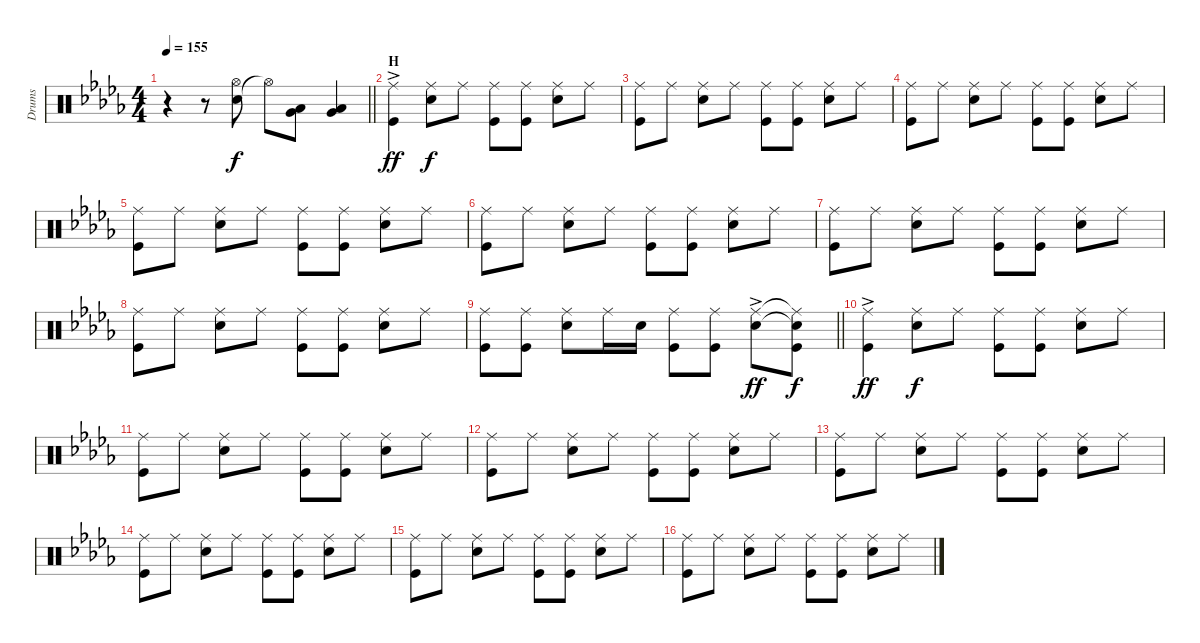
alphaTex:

\track ("Drums" "Drums") {instrument percussion}
\staff {score}
\articulation defaults
\ts (4 4)
\tempo 155
\clef neutral
\barLineRight lightlight
\ks db
r.4{dy f} r.8 ("Snare (hit) 2" "Hi-Hat (open)").8 "Hi-Hat (open)"{t}.8 ("Low Tom (hit)" "Very Low Tom (hit)").8 ("Low Tom (hit)" "Very Low Tom (hit)").4 |
\section ("" "H")
("Ride (middle)"{ac} "Kick (hit)"{ac}).4{dy ff} ("Ride (middle)" "Snare (hit) 2").8{dy f} "Ride (middle)".8 ("Ride (middle)" "Kick (hit)").8 ("Ride (middle)" "Kick (hit)").8 ("Ride (middle)" "Snare (hit) 2").8 "Ride (middle)".8 |
("Ride (middle)" "Kick (hit)").8 "Ride (middle)".8 ("Ride (middle)" "Snare (hit) 2").8 "Ride (middle)".8 ("Ride (middle)" "Kick (hit)").8 ("Ride (middle)" "Kick (hit)").8 ("Ride (middle)" "Snare (hit) 2").8 "Ride (middle)".8 |
("Ride (middle)" "Kick (hit)").8 "Ride (middle)".8 ("Ride (middle)" "Snare (hit) 2").8 "Ride (middle)".8 ("Ride (middle)" "Kick (hit)").8 ("Ride (middle)" "Kick (hit)").8 ("Ride (middle)" "Snare (hit) 2").8 "Ride (middle)".8 |
("Ride (middle)" "Kick (hit)").8 "Ride (middle)".8 ("Ride (middle)" "Snare (hit) 2").8 "Ride (middle)".8 ("Ride (middle)" "Kick (hit)").8 ("Ride (middle)" "Kick (hit)").8 ("Ride (middle)" "Snare (hit) 2").8 "Ride (middle)".8 |
("Ride (middle)" "Kick (hit)").8 "Ride (middle)".8 ("Ride (middle)" "Snare (hit) 2").8 "Ride (middle)".8 ("Ride (middle)" "Kick (hit)").8 ("Ride (middle)" "Kick (hit)").8 ("Ride (middle)" "Snare (hit) 2").8 "Ride (middle)".8 |
("Ride (middle)" "Kick (hit)").8 "Ride (middle)".8 ("Ride (middle)" "Snare (hit) 2").8 "Ride (middle)".8 ("Ride (middle)" "Kick (hit)").8 ("Ride (middle)" "Kick (hit)").8 ("Ride (middle)" "Snare (hit) 2").8 "Ride (middle)".8 |
("Ride (middle)" "Kick (hit)").8 "Ride (middle)".8 ("Ride (middle)" "Snare (hit) 2").8 "Ride (middle)".8 ("Ride (middle)" "Kick (hit)").8 ("Ride (middle)" "Kick (hit)").8 ("Ride (middle)" "Snare (hit) 2").8 "Ride (middle)".8 |
\barLineRight lightlight
("Ride (middle)" "Kick (hit)").8 ("Ride (middle)" "Kick (hit)").8 ("Ride (middle)" "Snare (hit) 2").8 "Ride (middle)".16 "Snare (hit) 2".16 ("Ride (middle)" "Kick (hit)").8 ("Ride (middle)" "Kick (hit)").8 ("Ride (middle)"{ac} "Snare (hit) 2"{ac}).8{dy ff} ("Ride (middle)"{t} "Snare (hit) 2"{t} "Kick (hit)").8{dy f} |
("Ride (middle)"{ac} "Kick (hit)"{ac}).4{dy ff} ("Ride (middle)" "Snare (hit) 2").8{dy f} "Ride (middle)".8 ("Ride (middle)" "Kick (hit)").8 ("Ride (middle)" "Kick (hit)").8 ("Ride (middle)" "Snare (hit) 2").8 "Ride (middle)".8 |
("Ride (middle)" "Kick (hit)").8 "Ride (middle)".8 ("Ride (middle)" "Snare (hit) 2").8 "Ride (middle)".8 ("Ride (middle)" "Kick (hit)").8 ("Ride (middle)" "Kick (hit)").8 ("Ride (middle)" "Snare (hit) 2").8 "Ride (middle)".8 |
("Ride (middle)" "Kick (hit)").8 "Ride (middle)".8 ("Ride (middle)" "Snare (hit) 2").8 "Ride (middle)".8 ("Ride (middle)" "Kick (hit)").8 ("Ride (middle)" "Kick (hit)").8 ("Ride (middle)" "Snare (hit) 2").8 "Ride (middle)".8 |
("Ride (middle)" "Kick (hit)").8 "Ride (middle)".8 ("Ride (middle)" "Snare (hit) 2").8 "Ride (middle)".8 ("Ride (middle)" "Kick (hit)").8 ("Ride (middle)" "Kick (hit)").8 ("Ride (middle)" "Snare (hit) 2").8 "Ride (middle)".8 |
("Ride (middle)" "Kick (hit)").8 "Ride (middle)".8 ("Ride (middle)" "Snare (hit) 2").8 "Ride (middle)".8 ("Ride (middle)" "Kick (hit)").8 ("Ride (middle)" "Kick (hit)").8 ("Ride (middle)" "Snare (hit) 2").8 "Ride (middle)".8 |
("Ride (middle)" "Kick (hit)").8 "Ride (middle)".8 ("Ride (middle)" "Snare (hit) 2").8 "Ride (middle)".8 ("Ride (middle)" "Kick (hit)").8 ("Ride (middle)" "Kick (hit)").8 ("Ride (middle)" "Snare (hit) 2").8 "Ride (middle)".8 |
("Ride (middle)" "Kick (hit)").8 "Ride (middle)".8 ("Ride (middle)" "Snare (hit) 2").8 "Ride (middle)".8 ("Ride (middle)" "Kick (hit)").8 ("Ride (middle)" "Kick (hit)").8 ("Ride (middle)" "Snare (hit) 2").8 "Ride (middle)".8
